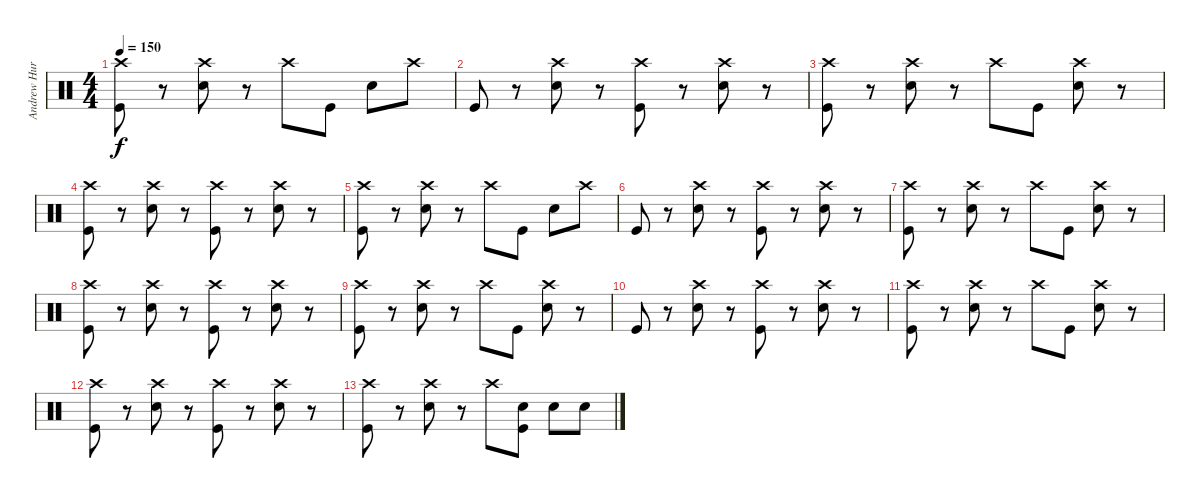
\track ("Andrew Hurley (Drums)" "Andrew Hur") {instrument percussion}
\staff {score}
\articulation defaults
\ts (4 4)
\tempo 150
\clef neutral
\ks c
("Crash high (hit)" "Kick (hit)").8{dy f} r.8 ("Crash high (hit)" "Snare (hit) 2").8 r.8 "Crash high (hit)".8 "Kick (hit)".8 "Snare (hit) 2".8 "Crash high (hit)".8 |
"Kick (hit)".8 r.8 ("Crash high (hit)" "Snare (hit) 2").8 r.8 ("Crash high (hit)" "Kick (hit)").8 r.8 ("Crash high (hit)" "Snare (hit) 2").8 r.8 |
("Crash high (hit)" "Kick (hit)").8 r.8 ("Crash high (hit)" "Snare (hit) 2").8 r.8 "Crash high (hit)".8 "Kick (hit)".8 ("Crash high (hit)" "Snare (hit) 2").8 r.8 |
("Crash high (hit)" "Kick (hit)").8 r.8 ("Crash high (hit)" "Snare (hit) 2").8 r.8 ("Crash high (hit)" "Kick (hit)").8 r.8 ("Crash high (hit)" "Snare (hit) 2").8 r.8 |
("Crash high (hit)" "Kick (hit)").8 r.8 ("Crash high (hit)" "Snare (hit) 2").8 r.8 "Crash high (hit)".8 "Kick (hit)".8 "Snare (hit) 2".8 "Crash high (hit)".8 |
"Kick (hit)".8 r.8 ("Crash high (hit)" "Snare (hit) 2").8 r.8 ("Crash high (hit)" "Kick (hit)").8 r.8 ("Crash high (hit)" "Snare (hit) 2").8 r.8 |
("Crash high (hit)" "Kick (hit)").8 r.8 ("Crash high (hit)" "Snare (hit) 2").8 r.8 "Crash high (hit)".8 "Kick (hit)".8 ("Crash high (hit)" "Snare (hit) 2").8 r.8 |
("Crash high (hit)" "Kick (hit)").8 r.8 ("Crash high (hit)" "Snare (hit) 2").8 r.8 ("Crash high (hit)" "Kick (hit)").8 r.8 ("Crash high (hit)" "Snare (hit) 2").8 r.8 |
("Crash high (hit)" "Kick (hit)").8 r.8 ("Crash high (hit)" "Snare (hit) 2").8 r.8 "Crash high (hit)".8 "Kick (hit)".8 ("Crash high (hit)" "Snare (hit) 2").8 r.8 |
"Kick (hit)".8{volume 4} r.8 ("Crash high (hit)" "Snare (hit) 2").8 r.8 ("Crash high (hit)" "Kick (hit)").8 r.8 ("Crash high (hit)" "Snare (hit) 2").8 r.8 |
("Crash high (hit)" "Kick (hit)").8 r.8 ("Crash high (hit)" "Snare (hit) 2").8 r.8 "Crash high (hit)".8 "Kick (hit)".8 ("Crash high (hit)" "Snare (hit) 2").8 r.8 |
("Crash high (hit)" "Kick (hit)").8 r.8 ("Crash high (hit)" "Snare (hit) 2").8 r.8 ("Crash high (hit)" "Kick (hit)").8 r.8 ("Crash high (hit)" "Snare (hit) 2").8 r.8 |
("Crash high (hit)" "Kick (hit)").8 r.8 ("Crash high (hit)" "Snare (hit) 2").8 r.8 "Crash high (hit)".8 ("Snare (hit) 2" "Kick (hit)").8 "Snare (hit) 2".8 "Snare (hit) 2".8
